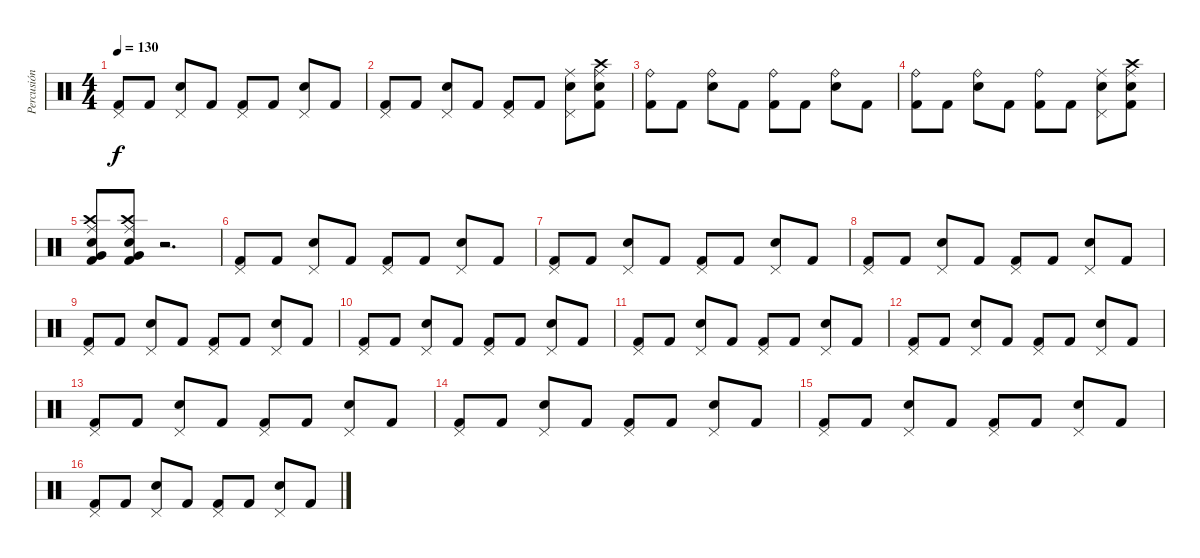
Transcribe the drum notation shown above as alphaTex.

\track ("Percusión" "Percusión") {instrument percussion}
\staff {score}
\articulation defaults
\ts (4 4)
\tempo 130
\clef neutral
\ks c
("Kick (hit) 2" "Pedal Hi-Hat (hit)").8{dy f} "Kick (hit) 2".8 ("Electric Snare (hit)" "Pedal Hi-Hat (hit)").8 "Kick (hit) 2".8 ("Kick (hit) 2" "Pedal Hi-Hat (hit)").8 "Kick (hit) 2".8 ("Electric Snare (hit)" "Pedal Hi-Hat (hit)").8 "Kick (hit) 2".8 |
("Kick (hit) 2" "Pedal Hi-Hat (hit)").8 "Kick (hit) 2".8 ("Electric Snare (hit)" "Pedal Hi-Hat (hit)").8 "Kick (hit) 2".8 ("Kick (hit) 2" "Pedal Hi-Hat (hit)").8 "Kick (hit) 2".8 ("Electric Snare (hit)" "Pedal Hi-Hat (hit)" "Ride (middle)").8 ("Kick (hit) 2" "Crash high (hit)" "Ride (middle)" "Electric Snare (hit)").8 |
("Kick (hit) 2" "Ride (bell)").8 "Kick (hit) 2".8 ("Electric Snare (hit)" "Ride (bell)").8 "Kick (hit) 2".8 ("Kick (hit) 2" "Ride (bell)").8 "Kick (hit) 2".8 ("Electric Snare (hit)" "Ride (bell)").8 "Kick (hit) 2".8 |
("Kick (hit) 2" "Ride (bell)").8 "Kick (hit) 2".8 ("Electric Snare (hit)" "Ride (bell)").8 "Kick (hit) 2".8 ("Kick (hit) 2" "Ride (bell)").8 "Kick (hit) 2".8 ("Electric Snare (hit)" "Pedal Hi-Hat (hit)" "Ride (middle)").8 ("Kick (hit) 2" "Crash high (hit)" "Ride (middle)" "Electric Snare (hit)").8 |
("Very Low Tom (hit)" "Crash high (hit)" "Ride (middle)" "Electric Snare (hit)" "Kick (hit) 2").8 ("Very Low Tom (hit)" "Crash high (hit)" "Ride (middle)" "Electric Snare (hit)" "Kick (hit) 2").8 r.2{d} |
("Kick (hit) 2" "Pedal Hi-Hat (hit)").8 "Kick (hit) 2".8 ("Electric Snare (hit)" "Pedal Hi-Hat (hit)").8 "Kick (hit) 2".8 ("Kick (hit) 2" "Pedal Hi-Hat (hit)").8 "Kick (hit) 2".8 ("Electric Snare (hit)" "Pedal Hi-Hat (hit)").8 "Kick (hit) 2".8 |
("Kick (hit) 2" "Pedal Hi-Hat (hit)").8 "Kick (hit) 2".8 ("Electric Snare (hit)" "Pedal Hi-Hat (hit)").8 "Kick (hit) 2".8 ("Kick (hit) 2" "Pedal Hi-Hat (hit)").8 "Kick (hit) 2".8 ("Electric Snare (hit)" "Pedal Hi-Hat (hit)").8 "Kick (hit) 2".8 |
("Kick (hit) 2" "Pedal Hi-Hat (hit)").8 "Kick (hit) 2".8 ("Electric Snare (hit)" "Pedal Hi-Hat (hit)").8 "Kick (hit) 2".8 ("Kick (hit) 2" "Pedal Hi-Hat (hit)").8 "Kick (hit) 2".8 ("Electric Snare (hit)" "Pedal Hi-Hat (hit)").8 "Kick (hit) 2".8 |
("Kick (hit) 2" "Pedal Hi-Hat (hit)").8 "Kick (hit) 2".8 ("Electric Snare (hit)" "Pedal Hi-Hat (hit)").8 "Kick (hit) 2".8 ("Kick (hit) 2" "Pedal Hi-Hat (hit)").8 "Kick (hit) 2".8 ("Electric Snare (hit)" "Pedal Hi-Hat (hit)").8 "Kick (hit) 2".8 |
("Kick (hit) 2" "Pedal Hi-Hat (hit)").8 "Kick (hit) 2".8 ("Electric Snare (hit)" "Pedal Hi-Hat (hit)").8 "Kick (hit) 2".8 ("Kick (hit) 2" "Pedal Hi-Hat (hit)").8 "Kick (hit) 2".8 ("Electric Snare (hit)" "Pedal Hi-Hat (hit)").8 "Kick (hit) 2".8 |
("Kick (hit) 2" "Pedal Hi-Hat (hit)").8 "Kick (hit) 2".8 ("Electric Snare (hit)" "Pedal Hi-Hat (hit)").8 "Kick (hit) 2".8 ("Kick (hit) 2" "Pedal Hi-Hat (hit)").8 "Kick (hit) 2".8 ("Electric Snare (hit)" "Pedal Hi-Hat (hit)").8 "Kick (hit) 2".8 |
("Kick (hit) 2" "Pedal Hi-Hat (hit)").8 "Kick (hit) 2".8 ("Electric Snare (hit)" "Pedal Hi-Hat (hit)").8 "Kick (hit) 2".8 ("Kick (hit) 2" "Pedal Hi-Hat (hit)").8 "Kick (hit) 2".8 ("Electric Snare (hit)" "Pedal Hi-Hat (hit)").8 "Kick (hit) 2".8 |
("Kick (hit) 2" "Pedal Hi-Hat (hit)").8 "Kick (hit) 2".8 ("Electric Snare (hit)" "Pedal Hi-Hat (hit)").8 "Kick (hit) 2".8 ("Kick (hit) 2" "Pedal Hi-Hat (hit)").8 "Kick (hit) 2".8 ("Electric Snare (hit)" "Pedal Hi-Hat (hit)").8 "Kick (hit) 2".8 |
("Kick (hit) 2" "Pedal Hi-Hat (hit)").8 "Kick (hit) 2".8 ("Electric Snare (hit)" "Pedal Hi-Hat (hit)").8 "Kick (hit) 2".8 ("Kick (hit) 2" "Pedal Hi-Hat (hit)").8 "Kick (hit) 2".8 ("Electric Snare (hit)" "Pedal Hi-Hat (hit)").8 "Kick (hit) 2".8 |
("Kick (hit) 2" "Pedal Hi-Hat (hit)").8 "Kick (hit) 2".8 ("Electric Snare (hit)" "Pedal Hi-Hat (hit)").8 "Kick (hit) 2".8 ("Kick (hit) 2" "Pedal Hi-Hat (hit)").8 "Kick (hit) 2".8 ("Electric Snare (hit)" "Pedal Hi-Hat (hit)").8 "Kick (hit) 2".8 |
("Kick (hit) 2" "Pedal Hi-Hat (hit)").8 "Kick (hit) 2".8 ("Electric Snare (hit)" "Pedal Hi-Hat (hit)").8 "Kick (hit) 2".8 ("Kick (hit) 2" "Pedal Hi-Hat (hit)").8 "Kick (hit) 2".8 ("Electric Snare (hit)" "Pedal Hi-Hat (hit)").8 "Kick (hit) 2".8
